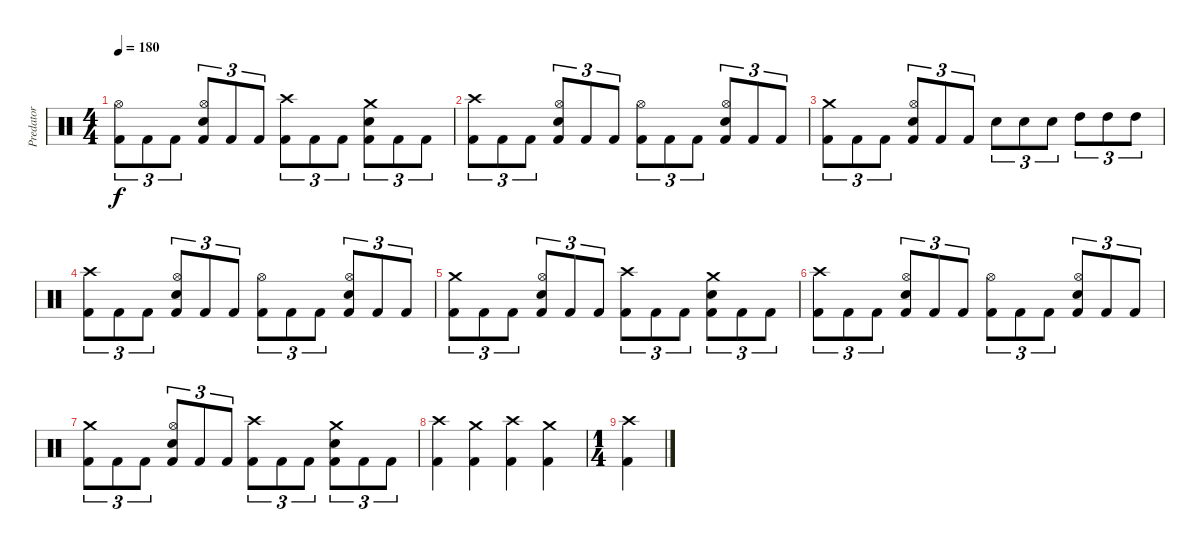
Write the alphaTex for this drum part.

\track ("Predator" "Predator") {instrument percussion}
\staff {score}
\articulation defaults
\ts (4 4)
\tempo 180
\clef neutral
\ks c
("Kick (hit) 2" "Hi-Hat (open)").8{tu (3 2) dy f} "Kick (hit) 2".8{tu (3 2)} "Kick (hit) 2".8{tu (3 2)} ("Kick (hit) 2" "Electric Snare (hit)" "Hi-Hat (open)").8{tu (3 2)} "Kick (hit) 2".8{tu (3 2)} "Kick (hit) 2".8{tu (3 2)} ("Kick (hit) 2" "Crash high (hit)").8{tu (3 2)} "Kick (hit) 2".8{tu (3 2)} "Kick (hit) 2".8{tu (3 2)} ("Kick (hit) 2" "Electric Snare (hit)" "Crash medium (hit)").8{tu (3 2)} "Kick (hit) 2".8{tu (3 2)} "Kick (hit) 2".8{tu (3 2)} |
("Kick (hit) 2" "Crash high (hit)").8{tu (3 2)} "Kick (hit) 2".8{tu (3 2)} "Kick (hit) 2".8{tu (3 2)} ("Kick (hit) 2" "Electric Snare (hit)" "Hi-Hat (open)").8{tu (3 2)} "Kick (hit) 2".8{tu (3 2)} "Kick (hit) 2".8{tu (3 2)} ("Kick (hit) 2" "Hi-Hat (open)").8{tu (3 2)} "Kick (hit) 2".8{tu (3 2)} "Kick (hit) 2".8{tu (3 2)} ("Kick (hit) 2" "Electric Snare (hit)" "Hi-Hat (open)").8{tu (3 2)} "Kick (hit) 2".8{tu (3 2)} "Kick (hit) 2".8{tu (3 2)} |
("Kick (hit) 2" "Crash medium (hit)").8{tu (3 2)} "Kick (hit) 2".8{tu (3 2)} "Kick (hit) 2".8{tu (3 2)} ("Kick (hit) 2" "Electric Snare (hit)" "Hi-Hat (open)").8{tu (3 2)} "Kick (hit) 2".8{tu (3 2)} "Kick (hit) 2".8{tu (3 2)} "Electric Snare (hit)".8{tu (3 2)} "Electric Snare (hit)".8{tu (3 2)} "Electric Snare (hit)".8{tu (3 2)} "High Tom (hit)".8{tu (3 2)} "High Tom (hit)".8{tu (3 2)} "High Tom (hit)".8{tu (3 2)} |
("Kick (hit) 2" "Crash high (hit)").8{tu (3 2)} "Kick (hit) 2".8{tu (3 2)} "Kick (hit) 2".8{tu (3 2)} ("Kick (hit) 2" "Electric Snare (hit)" "Hi-Hat (open)").8{tu (3 2)} "Kick (hit) 2".8{tu (3 2)} "Kick (hit) 2".8{tu (3 2)} ("Kick (hit) 2" "Hi-Hat (open)").8{tu (3 2)} "Kick (hit) 2".8{tu (3 2)} "Kick (hit) 2".8{tu (3 2)} ("Kick (hit) 2" "Electric Snare (hit)" "Hi-Hat (open)").8{tu (3 2)} "Kick (hit) 2".8{tu (3 2)} "Kick (hit) 2".8{tu (3 2)} |
("Kick (hit) 2" "Crash medium (hit)").8{tu (3 2)} "Kick (hit) 2".8{tu (3 2)} "Kick (hit) 2".8{tu (3 2)} ("Kick (hit) 2" "Electric Snare (hit)" "Hi-Hat (open)").8{tu (3 2)} "Kick (hit) 2".8{tu (3 2)} "Kick (hit) 2".8{tu (3 2)} ("Kick (hit) 2" "Crash high (hit)").8{tu (3 2)} "Kick (hit) 2".8{tu (3 2)} "Kick (hit) 2".8{tu (3 2)} ("Kick (hit) 2" "Electric Snare (hit)" "Crash medium (hit)").8{tu (3 2)} "Kick (hit) 2".8{tu (3 2)} "Kick (hit) 2".8{tu (3 2)} |
("Kick (hit) 2" "Crash high (hit)").8{tu (3 2)} "Kick (hit) 2".8{tu (3 2)} "Kick (hit) 2".8{tu (3 2)} ("Kick (hit) 2" "Electric Snare (hit)" "Hi-Hat (open)").8{tu (3 2)} "Kick (hit) 2".8{tu (3 2)} "Kick (hit) 2".8{tu (3 2)} ("Kick (hit) 2" "Hi-Hat (open)").8{tu (3 2)} "Kick (hit) 2".8{tu (3 2)} "Kick (hit) 2".8{tu (3 2)} ("Kick (hit) 2" "Electric Snare (hit)" "Hi-Hat (open)").8{tu (3 2)} "Kick (hit) 2".8{tu (3 2)} "Kick (hit) 2".8{tu (3 2)} |
("Kick (hit) 2" "Crash medium (hit)").8{tu (3 2)} "Kick (hit) 2".8{tu (3 2)} "Kick (hit) 2".8{tu (3 2)} ("Kick (hit) 2" "Electric Snare (hit)" "Hi-Hat (open)").8{tu (3 2)} "Kick (hit) 2".8{tu (3 2)} "Kick (hit) 2".8{tu (3 2)} ("Kick (hit) 2" "Crash high (hit)").8{tu (3 2)} "Kick (hit) 2".8{tu (3 2)} "Kick (hit) 2".8{tu (3 2)} ("Kick (hit) 2" "Electric Snare (hit)" "Crash medium (hit)").8{tu (3 2)} "Kick (hit) 2".8{tu (3 2)} "Kick (hit) 2".8{tu (3 2)} |
("Kick (hit) 2" "Crash high (hit)").4 ("Kick (hit) 2" "Crash medium (hit)").4 ("Kick (hit) 2" "Crash high (hit)").4 ("Kick (hit) 2" "Crash medium (hit)").4 |
\ts (1 4)
("Kick (hit) 2" "Crash high (hit)").4
